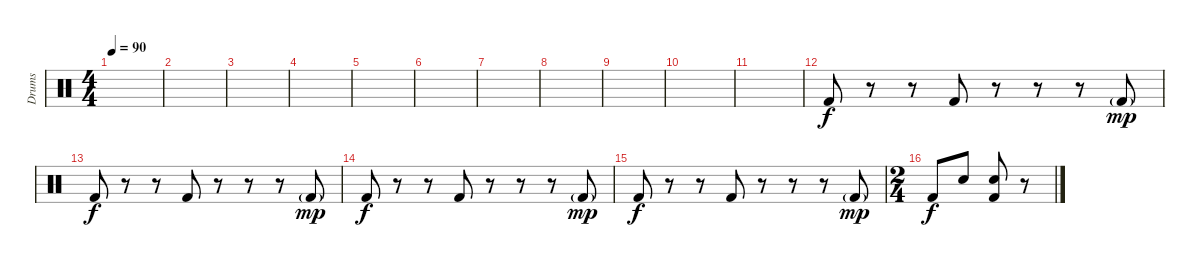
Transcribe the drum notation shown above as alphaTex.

\track ("Drums" "Drums") {instrument percussion}
\staff {score}
\articulation defaults
\ts (4 4)
\tempo 90
\clef neutral
\ks c
|
|
|
|
|
|
|
|
|
|
|
"Kick (hit) 2".8{balance 8} r.8 r.8 "Kick (hit) 2".8 r.8 r.8 r.8 "Kick (hit) 2"{g}.8{dy mp} |
"Kick (hit) 2".8{dy f} r.8 r.8 "Kick (hit) 2".8 r.8 r.8 r.8 "Kick (hit) 2"{g}.8{dy mp} |
"Kick (hit) 2".8{dy f} r.8 r.8 "Kick (hit) 2".8 r.8 r.8 r.8 "Kick (hit) 2"{g}.8{dy mp} |
"Kick (hit) 2".8{dy f} r.8 r.8 "Kick (hit) 2".8 r.8 r.8 r.8 "Kick (hit) 2"{g}.8{dy mp} |
\ts (2 4)
"Kick (hit) 2".8{dy f} "Snare (hit) 2".8 ("Snare (hit) 2" "Kick (hit) 2").8 r.8
